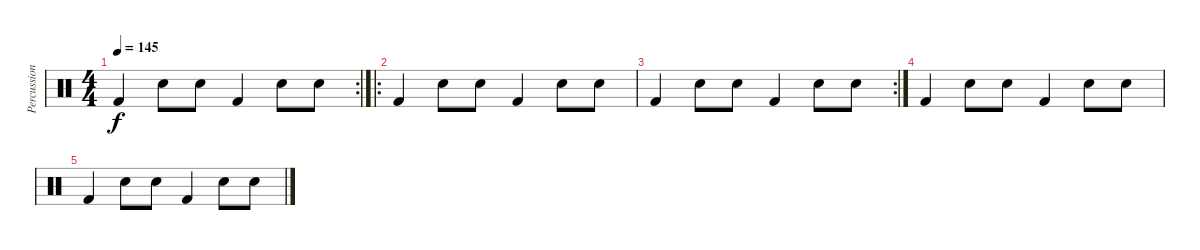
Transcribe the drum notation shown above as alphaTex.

\track ("Percussions" "Percussion") {instrument percussion}
\staff {score}
\articulation defaults
\rc 2
\ts (4 4)
\tempo 145
\clef neutral
\ks c "Kick (hit) 2".4{dy f} "Snare (hit) 2".8 "Snare (hit) 2".8 "Kick (hit) 2".4 "Snare (hit) 2".8 "Snare (hit) 2".8
|
\ro "Kick (hit) 2".4 "Snare (hit) 2".8 "Snare (hit) 2".8 "Kick (hit) 2".4 "Snare (hit) 2".8 "Snare (hit) 2".8
|
\rc 2 "Kick (hit) 2".4 "Snare (hit) 2".8 "Snare (hit) 2".8 "Kick (hit) 2".4 "Snare (hit) 2".8 "Snare (hit) 2".8
|
"Kick (hit) 2".4 "Snare (hit) 2".8 "Snare (hit) 2".8 "Kick (hit) 2".4 "Snare (hit) 2".8 "Snare (hit) 2".8 |
"Kick (hit) 2".4 "Snare (hit) 2".8 "Snare (hit) 2".8 "Kick (hit) 2".4 "Snare (hit) 2".8 "Snare (hit) 2".8
